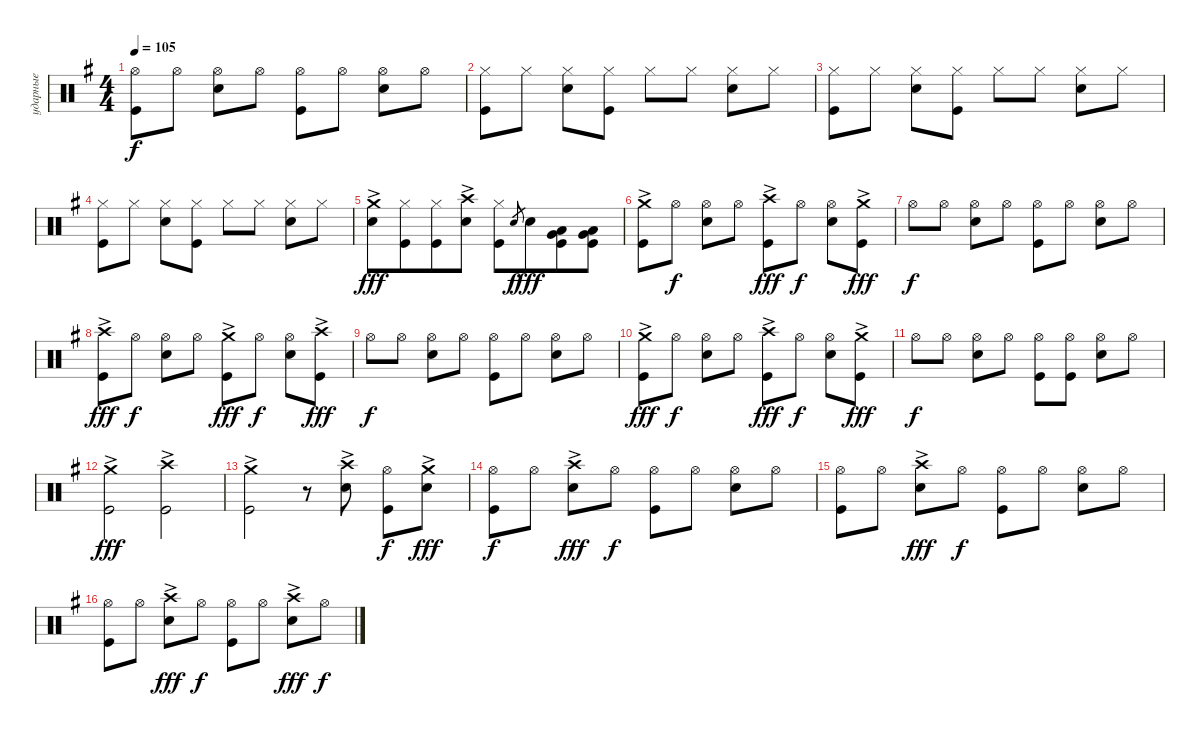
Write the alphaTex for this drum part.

\track ("ударные" "ударные") {instrument percussion}
\staff {score}
\articulation defaults
\ts (4 4)
\tempo 105
\clef neutral
\ks eminor
("Kick (hit)" "Hi-Hat (open)").8{dy f} "Hi-Hat (open)".8 ("Snare (hit) 2" "Hi-Hat (open)").8 "Hi-Hat (open)".8 ("Kick (hit)" "Hi-Hat (open)").8 "Hi-Hat (open)".8 ("Snare (hit) 2" "Hi-Hat (open)").8 "Hi-Hat (open)".8 |
("Kick (hit)" "Hi-Hat (closed)").8 "Hi-Hat (closed)".8 ("Snare (hit) 2" "Hi-Hat (closed)").8 ("Hi-Hat (closed)" "Kick (hit)").8 "Hi-Hat (closed)".8 "Hi-Hat (closed)".8 ("Snare (hit) 2" "Hi-Hat (closed)").8 "Hi-Hat (closed)".8 |
("Kick (hit)" "Hi-Hat (closed)").8 "Hi-Hat (closed)".8 ("Snare (hit) 2" "Hi-Hat (closed)").8 ("Hi-Hat (closed)" "Kick (hit)").8 "Hi-Hat (closed)".8 "Hi-Hat (closed)".8 ("Snare (hit) 2" "Hi-Hat (closed)").8 "Hi-Hat (closed)".8 |
("Kick (hit)" "Hi-Hat (closed)").8 "Hi-Hat (closed)".8 ("Snare (hit) 2" "Hi-Hat (closed)").8 ("Hi-Hat (closed)" "Kick (hit)").8 "Hi-Hat (closed)".8 "Hi-Hat (closed)".8 ("Snare (hit) 2" "Hi-Hat (closed)").8 "Hi-Hat (closed)".8 |
("Snare (hit) 2" "Crash medium (hit)"{ac}).8{dy fff} ("Kick (hit)" "Hi-Hat (closed)").8{beam merge} ("Kick (hit)" "Hi-Hat (closed)").8 ("Snare (hit) 2" "Crash high (hit)"{ac}).8 ("Kick (hit)" "Hi-Hat (closed)").8 "Snare (hit) 2".8{gr dy f} "Snare (hit) 2".8{dy fff beam merge} ("Kick (hit)" "Low Floor Tom (hit)" "Very Low Tom (hit)").8 ("Kick (hit)" "Low Floor Tom (hit)" "Very Low Tom (hit)").8 |
("Kick (hit)" "Crash medium (hit)"{ac}).8 "Hi-Hat (open)".8{dy f} ("Snare (hit) 2" "Hi-Hat (open)").8 "Hi-Hat (open)".8 ("Kick (hit)" "Crash high (hit)"{ac}).8{dy fff} "Hi-Hat (open)".8{dy f} ("Snare (hit) 2" "Hi-Hat (open)").8 ("Kick (hit)" "Crash medium (hit)"{ac}).8{dy fff} |
"Hi-Hat (open)".8{dy f} "Hi-Hat (open)".8 ("Snare (hit) 2" "Hi-Hat (open)").8 "Hi-Hat (open)".8 ("Kick (hit)" "Hi-Hat (open)").8 "Hi-Hat (open)".8 ("Snare (hit) 2" "Hi-Hat (open)").8 "Hi-Hat (open)".8 |
("Kick (hit)" "Crash high (hit)"{ac}).8{dy fff} "Hi-Hat (open)".8{dy f} ("Snare (hit) 2" "Hi-Hat (open)").8 "Hi-Hat (open)".8 ("Kick (hit)" "Crash medium (hit)"{ac}).8{dy fff} "Hi-Hat (open)".8{dy f} ("Snare (hit) 2" "Hi-Hat (open)").8 ("Kick (hit)" "Crash high (hit)"{ac}).8{dy fff} |
"Hi-Hat (open)".8{dy f} "Hi-Hat (open)".8 ("Snare (hit) 2" "Hi-Hat (open)").8 "Hi-Hat (open)".8 ("Kick (hit)" "Hi-Hat (open)").8 "Hi-Hat (open)".8 ("Snare (hit) 2" "Hi-Hat (open)").8 "Hi-Hat (open)".8 |
("Kick (hit)" "Crash medium (hit)"{ac}).8{dy fff} "Hi-Hat (open)".8{dy f} ("Snare (hit) 2" "Hi-Hat (open)").8 "Hi-Hat (open)".8 ("Kick (hit)" "Crash high (hit)"{ac}).8{dy fff} "Hi-Hat (open)".8{dy f} ("Snare (hit) 2" "Hi-Hat (open)").8 ("Kick (hit)" "Crash medium (hit)"{ac}).8{dy fff} |
"Hi-Hat (open)".8{dy f} "Hi-Hat (open)".8 ("Snare (hit) 2" "Hi-Hat (open)").8 "Hi-Hat (open)".8 ("Kick (hit)" "Hi-Hat (open)").8 ("Hi-Hat (open)" "Kick (hit)").8 ("Snare (hit) 2" "Hi-Hat (open)").8 "Hi-Hat (open)".8 |
("Kick (hit)" "Crash medium (hit)"{ac}).2{dy fff} ("Kick (hit)" "Crash high (hit)"{ac}).2 |
("Kick (hit)" "Crash medium (hit)"{ac}).2 r.8 ("Snare (hit) 2" "Crash high (hit)"{ac}).8 ("Kick (hit)" "Hi-Hat (open)").8{dy f} ("Snare (hit) 2" "Crash medium (hit)"{ac}).8{dy fff} |
("Kick (hit)" "Hi-Hat (open)").8{dy f} "Hi-Hat (open)".8 ("Snare (hit) 2" "Crash high (hit)"{ac}).8{dy fff} "Hi-Hat (open)".8{dy f} ("Kick (hit)" "Hi-Hat (open)").8 "Hi-Hat (open)".8 ("Snare (hit) 2" "Hi-Hat (open)").8 "Hi-Hat (open)".8 |
("Kick (hit)" "Hi-Hat (open)").8 "Hi-Hat (open)".8 ("Snare (hit) 2" "Crash high (hit)"{ac}).8{dy fff} "Hi-Hat (open)".8{dy f} ("Kick (hit)" "Hi-Hat (open)").8 "Hi-Hat (open)".8 ("Snare (hit) 2" "Hi-Hat (open)").8 "Hi-Hat (open)".8 |
("Kick (hit)" "Hi-Hat (open)").8 "Hi-Hat (open)".8 ("Snare (hit) 2" "Crash high (hit)"{ac}).8{dy fff} "Hi-Hat (open)".8{dy f} ("Kick (hit)" "Hi-Hat (open)").8 "Hi-Hat (open)".8 ("Snare (hit) 2" "Crash high (hit)"{ac}).8{dy fff} "Hi-Hat (open)".8{dy f}
